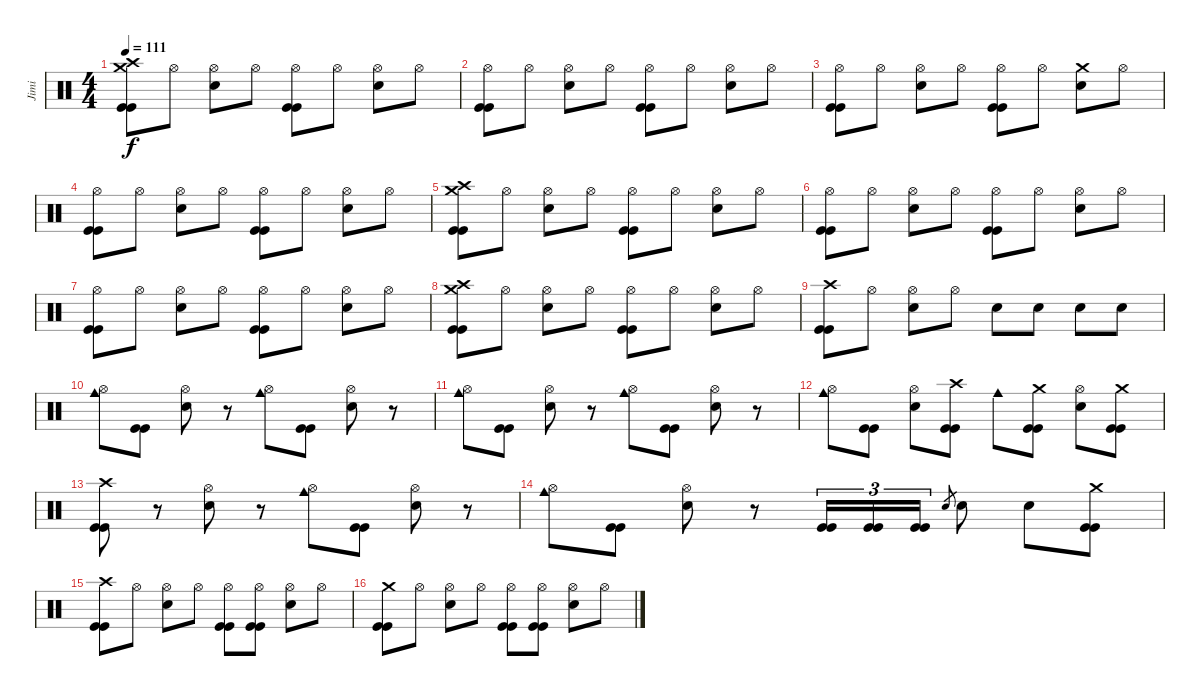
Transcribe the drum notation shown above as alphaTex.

\track ("Jimi" "Jimi") {instrument percussion}
\staff {score}
\articulation defaults
\ts (4 4)
\tempo 111
\clef neutral
\ks c
("Crash high (hit)" "Crash medium (hit)" "Kick (hit)" "Kick (hit)").8{dy f} "Hi-Hat (open)".8 ("Hi-Hat (open)" "Electric Snare (hit)").8 "Hi-Hat (open)".8 ("Hi-Hat (open)" "Kick (hit)" "Kick (hit)").8 "Hi-Hat (open)".8 ("Hi-Hat (open)" "Electric Snare (hit)").8 "Hi-Hat (open)".8 |
("Hi-Hat (open)" "Kick (hit)" "Kick (hit)").8 "Hi-Hat (open)".8 ("Hi-Hat (open)" "Electric Snare (hit)").8 "Hi-Hat (open)".8 ("Hi-Hat (open)" "Kick (hit)" "Kick (hit)").8 "Hi-Hat (open)".8 ("Hi-Hat (open)" "Electric Snare (hit)").8 "Hi-Hat (open)".8 |
("Hi-Hat (open)" "Kick (hit)" "Kick (hit)").8 "Hi-Hat (open)".8 ("Hi-Hat (open)" "Electric Snare (hit)").8 "Hi-Hat (open)".8 ("Hi-Hat (open)" "Kick (hit)" "Kick (hit)").8 "Hi-Hat (open)".8 ("Crash medium (hit)" "Electric Snare (hit)").8 "Hi-Hat (open)".8 |
("Hi-Hat (open)" "Kick (hit)" "Kick (hit)").8 "Hi-Hat (open)".8 ("Hi-Hat (open)" "Electric Snare (hit)").8 "Hi-Hat (open)".8 ("Hi-Hat (open)" "Kick (hit)" "Kick (hit)").8 "Hi-Hat (open)".8 ("Hi-Hat (open)" "Electric Snare (hit)").8 "Hi-Hat (open)".8 |
("Crash high (hit)" "Crash medium (hit)" "Kick (hit)" "Kick (hit)").8 "Hi-Hat (open)".8 ("Hi-Hat (open)" "Electric Snare (hit)").8 "Hi-Hat (open)".8 ("Hi-Hat (open)" "Kick (hit)" "Kick (hit)").8 "Hi-Hat (open)".8 ("Hi-Hat (open)" "Electric Snare (hit)").8 "Hi-Hat (open)".8 |
("Hi-Hat (open)" "Kick (hit)" "Kick (hit)").8 "Hi-Hat (open)".8 ("Hi-Hat (open)" "Electric Snare (hit)").8 "Hi-Hat (open)".8 ("Hi-Hat (open)" "Kick (hit)" "Kick (hit)").8 "Hi-Hat (open)".8 ("Hi-Hat (open)" "Electric Snare (hit)").8 "Hi-Hat (open)".8 |
("Hi-Hat (open)" "Kick (hit)" "Kick (hit)").8 "Hi-Hat (open)".8 ("Hi-Hat (open)" "Electric Snare (hit)").8 "Hi-Hat (open)".8 ("Hi-Hat (open)" "Kick (hit)" "Kick (hit)").8 "Hi-Hat (open)".8 ("Hi-Hat (open)" "Electric Snare (hit)").8 "Hi-Hat (open)".8 |
("Crash high (hit)" "Crash medium (hit)" "Kick (hit)" "Kick (hit)").8 "Hi-Hat (open)".8 ("Hi-Hat (open)" "Electric Snare (hit)").8 "Hi-Hat (open)".8 ("Hi-Hat (open)" "Kick (hit)" "Kick (hit)").8 "Hi-Hat (open)".8 ("Hi-Hat (open)" "Electric Snare (hit)").8 "Hi-Hat (open)".8 |
("Crash high (hit)" "Kick (hit)" "Kick (hit)").8 "Hi-Hat (open)".8 ("Hi-Hat (open)" "Electric Snare (hit)").8 "Hi-Hat (open)".8 "Electric Snare (hit)".8 "Electric Snare (hit)".8 "Electric Snare (hit)".8 "Electric Snare (hit)".8 |
("Cowbell medium (hit)" "Hi-Hat (open)").8 ("Kick (hit)" "Kick (hit)").8 ("Hi-Hat (open)" "Electric Snare (hit)").8 r.8 ("Cowbell medium (hit)" "Hi-Hat (open)").8 ("Kick (hit)" "Kick (hit)").8 ("Hi-Hat (open)" "Electric Snare (hit)").8 r.8 |
("Cowbell medium (hit)" "Hi-Hat (open)").8 ("Kick (hit)" "Kick (hit)").8 ("Hi-Hat (open)" "Electric Snare (hit)").8 r.8 ("Cowbell medium (hit)" "Hi-Hat (open)").8 ("Kick (hit)" "Kick (hit)").8 ("Hi-Hat (open)" "Electric Snare (hit)").8 r.8 |
("Cowbell medium (hit)" "Hi-Hat (open)").8 ("Kick (hit)" "Kick (hit)").8 ("Hi-Hat (open)" "Electric Snare (hit)").8 ("Crash high (hit)" "Kick (hit)" "Kick (hit)").8 "Cowbell medium (hit)".8 ("Crash medium (hit)" "Kick (hit)" "Kick (hit)").8 ("Hi-Hat (open)" "Electric Snare (hit)").8 ("Crash medium (hit)" "Kick (hit)" "Kick (hit)").8 |
("Crash high (hit)" "Kick (hit)" "Kick (hit)").8 r.8 ("Hi-Hat (open)" "Electric Snare (hit)").8 r.8 ("Cowbell medium (hit)" "Hi-Hat (open)").8 ("Kick (hit)" "Kick (hit)").8 ("Hi-Hat (open)" "Electric Snare (hit)").8 r.8 |
("Cowbell medium (hit)" "Hi-Hat (open)").8 ("Kick (hit)" "Kick (hit)").8 ("Hi-Hat (open)" "Electric Snare (hit)").8 r.8 ("Kick (hit)" "Kick (hit)").16{tu (3 2)} ("Kick (hit)" "Kick (hit)").16{tu (3 2)} ("Kick (hit)" "Kick (hit)").16{tu (3 2)} "Electric Snare (hit)".8{gr} "Electric Snare (hit)".8 "Electric Snare (hit)".8 ("Crash medium (hit)" "Kick (hit)" "Kick (hit)").8 |
("Crash high (hit)" "Kick (hit)" "Kick (hit)").8 "Hi-Hat (open)".8 ("Hi-Hat (open)" "Electric Snare (hit)").8 "Hi-Hat (open)".8 ("Hi-Hat (open)" "Kick (hit)" "Kick (hit)").8 ("Hi-Hat (open)" "Kick (hit)" "Kick (hit)").8 ("Hi-Hat (open)" "Electric Snare (hit)").8 "Hi-Hat (open)".8 |
("Crash medium (hit)" "Kick (hit)" "Kick (hit)").8 "Hi-Hat (open)".8 ("Hi-Hat (open)" "Electric Snare (hit)").8 "Hi-Hat (open)".8 ("Hi-Hat (open)" "Kick (hit)" "Kick (hit)").8 ("Hi-Hat (open)" "Kick (hit)" "Kick (hit)").8 ("Hi-Hat (open)" "Electric Snare (hit)").8 "Hi-Hat (open)".8
